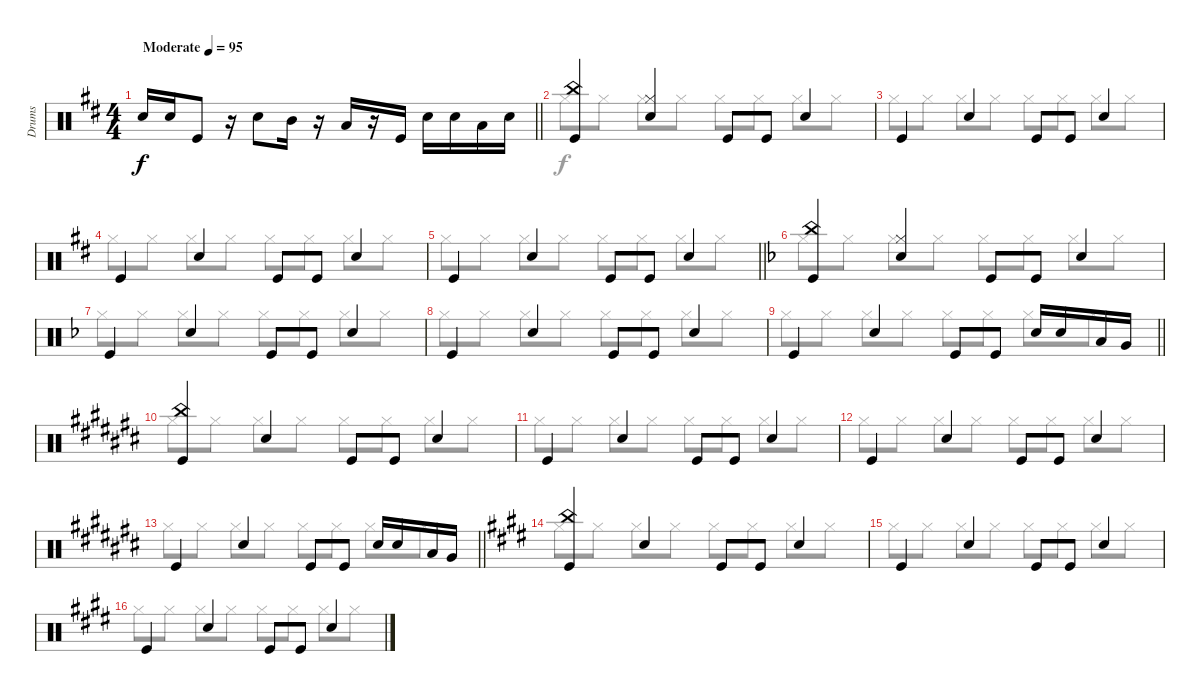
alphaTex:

\track ("Drums" "Drums") {instrument percussion}
\staff {score}
\articulation defaults
\voice
\ts (4 4)
\tempo (95 "Moderate")
\clef neutral
\barLineRight lightlight
\ks bminor "Snare (hit) 2".16{dy f} "Snare (hit) 2".16 "Kick (hit)".8
r.16 "Snare (hit) 2".8 "Mid Tom (hit)".16 r.16 "Low Tom (hit)".16 r.16 "Kick (hit)".16 "Snare (hit) 2".16 "Snare (hit) 2".16 "Low Tom (hit)".16 "Snare (hit) 2".16 |
("China (hit)" "Kick (hit)").4 ("Hi-Hat (closed)" "Snare (hit) 2").4 "Kick (hit)".8 "Kick (hit)".8 "Snare (hit) 2".4 |
"Kick (hit)".4 "Snare (hit) 2".4 "Kick (hit)".8 "Kick (hit)".8 "Snare (hit) 2".4 |
"Kick (hit)".4 "Snare (hit) 2".4 "Kick (hit)".8 "Kick (hit)".8 "Snare (hit) 2".4 |
\barLineRight lightlight "Kick (hit)".4 "Snare (hit) 2".4 "Kick (hit)".8 "Kick (hit)".8 "Snare (hit) 2".4
|
\ks dminor
("China (hit)" "Kick (hit)").4 ("Hi-Hat (closed)" "Snare (hit) 2").4 "Kick (hit)".8 "Kick (hit)".8 "Snare (hit) 2".4 |
"Kick (hit)".4 "Snare (hit) 2".4 "Kick (hit)".8 "Kick (hit)".8 "Snare (hit) 2".4 |
"Kick (hit)".4 "Snare (hit) 2".4 "Kick (hit)".8 "Kick (hit)".8 "Snare (hit) 2".4 |
\barLineRight lightlight "Kick (hit)".4 "Snare (hit) 2".4 "Kick (hit)".8 "Kick (hit)".8 "Snare (hit) 2".16 "Snare (hit) 2".16 "Low Tom (hit)".16 "Very Low Tom (hit)".16
|
\ks a#minor
("China (hit)" "Kick (hit)").4 "Snare (hit) 2".4 "Kick (hit)".8 "Kick (hit)".8 "Snare (hit) 2".4 |
"Kick (hit)".4 "Snare (hit) 2".4 "Kick (hit)".8 "Kick (hit)".8 "Snare (hit) 2".4 |
"Kick (hit)".4 "Snare (hit) 2".4 "Kick (hit)".8 "Kick (hit)".8 "Snare (hit) 2".4 |
\barLineRight lightlight "Kick (hit)".4 "Snare (hit) 2".4 "Kick (hit)".8 "Kick (hit)".8 "Snare (hit) 2".16 "Snare (hit) 2".16 "Low Tom (hit)".16 "Very Low Tom (hit)".16
|
\ks c#minor
("China (hit)" "Kick (hit)").4 "Snare (hit) 2".4 "Kick (hit)".8 "Kick (hit)".8 "Snare (hit) 2".4 |
"Kick (hit)".4 "Snare (hit) 2".4 "Kick (hit)".8 "Kick (hit)".8 "Snare (hit) 2".4 |
"Kick (hit)".4 "Snare (hit) 2".4 "Kick (hit)".8 "Kick (hit)".8 "Snare (hit) 2".4
\voice
\clef neutral
\ottava regular
\simile none
\barLineRight lightlight
\ks bminor
|
"Hi-Hat (closed)".8 "Hi-Hat (closed)".8 "Hi-Hat (closed)".8 "Hi-Hat (closed)".8 "Hi-Hat (closed)".8 "Hi-Hat (closed)".8 "Hi-Hat (closed)".8 "Hi-Hat (closed)".8 |
"Hi-Hat (closed)".8 "Hi-Hat (closed)".8 "Hi-Hat (closed)".8 "Hi-Hat (closed)".8 "Hi-Hat (closed)".8 "Hi-Hat (closed)".8 "Hi-Hat (closed)".8 "Hi-Hat (closed)".8 |
"Hi-Hat (closed)".8 "Hi-Hat (closed)".8 "Hi-Hat (closed)".8 "Hi-Hat (closed)".8 "Hi-Hat (closed)".8 "Hi-Hat (closed)".8 "Hi-Hat (closed)".8 "Hi-Hat (closed)".8 |
\barLineRight lightlight "Hi-Hat (closed)".8 "Hi-Hat (closed)".8 "Hi-Hat (closed)".8 "Hi-Hat (closed)".8 "Hi-Hat (closed)".8 "Hi-Hat (closed)".8 "Hi-Hat (closed)".8 "Hi-Hat (closed)".8
|
\ks dminor "Hi-Hat (closed)".8 "Hi-Hat (closed)".8 "Hi-Hat (closed)".8 "Hi-Hat (closed)".8 "Hi-Hat (closed)".8 "Hi-Hat (closed)".8 "Hi-Hat (closed)".8 "Hi-Hat (closed)".8
|
"Hi-Hat (closed)".8 "Hi-Hat (closed)".8 "Hi-Hat (closed)".8 "Hi-Hat (closed)".8 "Hi-Hat (closed)".8 "Hi-Hat (closed)".8 "Hi-Hat (closed)".8 "Hi-Hat (closed)".8 |
"Hi-Hat (closed)".8 "Hi-Hat (closed)".8 "Hi-Hat (closed)".8 "Hi-Hat (closed)".8 "Hi-Hat (closed)".8 "Hi-Hat (closed)".8 "Hi-Hat (closed)".8 "Hi-Hat (closed)".8 |
\barLineRight lightlight "Hi-Hat (closed)".8 "Hi-Hat (closed)".8 "Hi-Hat (closed)".8 "Hi-Hat (closed)".8 "Hi-Hat (closed)".8 "Hi-Hat (closed)".8 "Hi-Hat (closed)".8 "Hi-Hat (closed)".8
|
\ks a#minor "Hi-Hat (closed)".8 "Hi-Hat (closed)".8 "Hi-Hat (closed)".8 "Hi-Hat (closed)".8 "Hi-Hat (closed)".8 "Hi-Hat (closed)".8 "Hi-Hat (closed)".8 "Hi-Hat (closed)".8
|
"Hi-Hat (closed)".8 "Hi-Hat (closed)".8 "Hi-Hat (closed)".8 "Hi-Hat (closed)".8 "Hi-Hat (closed)".8 "Hi-Hat (closed)".8 "Hi-Hat (closed)".8 "Hi-Hat (closed)".8 |
"Hi-Hat (closed)".8 "Hi-Hat (closed)".8 "Hi-Hat (closed)".8 "Hi-Hat (closed)".8 "Hi-Hat (closed)".8 "Hi-Hat (closed)".8 "Hi-Hat (closed)".8 "Hi-Hat (closed)".8 |
\barLineRight lightlight "Hi-Hat (closed)".8 "Hi-Hat (closed)".8 "Hi-Hat (closed)".8 "Hi-Hat (closed)".8 "Hi-Hat (closed)".8 "Hi-Hat (closed)".8 "Hi-Hat (closed)".8 "Hi-Hat (closed)".8
|
\ks c#minor "Hi-Hat (closed)".8 "Hi-Hat (closed)".8 "Hi-Hat (closed)".8 "Hi-Hat (closed)".8 "Hi-Hat (closed)".8 "Hi-Hat (closed)".8 "Hi-Hat (closed)".8 "Hi-Hat (closed)".8
|
"Hi-Hat (closed)".8 "Hi-Hat (closed)".8 "Hi-Hat (closed)".8 "Hi-Hat (closed)".8 "Hi-Hat (closed)".8 "Hi-Hat (closed)".8 "Hi-Hat (closed)".8 "Hi-Hat (closed)".8 |
"Hi-Hat (closed)".8 "Hi-Hat (closed)".8 "Hi-Hat (closed)".8 "Hi-Hat (closed)".8 "Hi-Hat (closed)".8 "Hi-Hat (closed)".8 "Hi-Hat (closed)".8 "Hi-Hat (closed)".8
